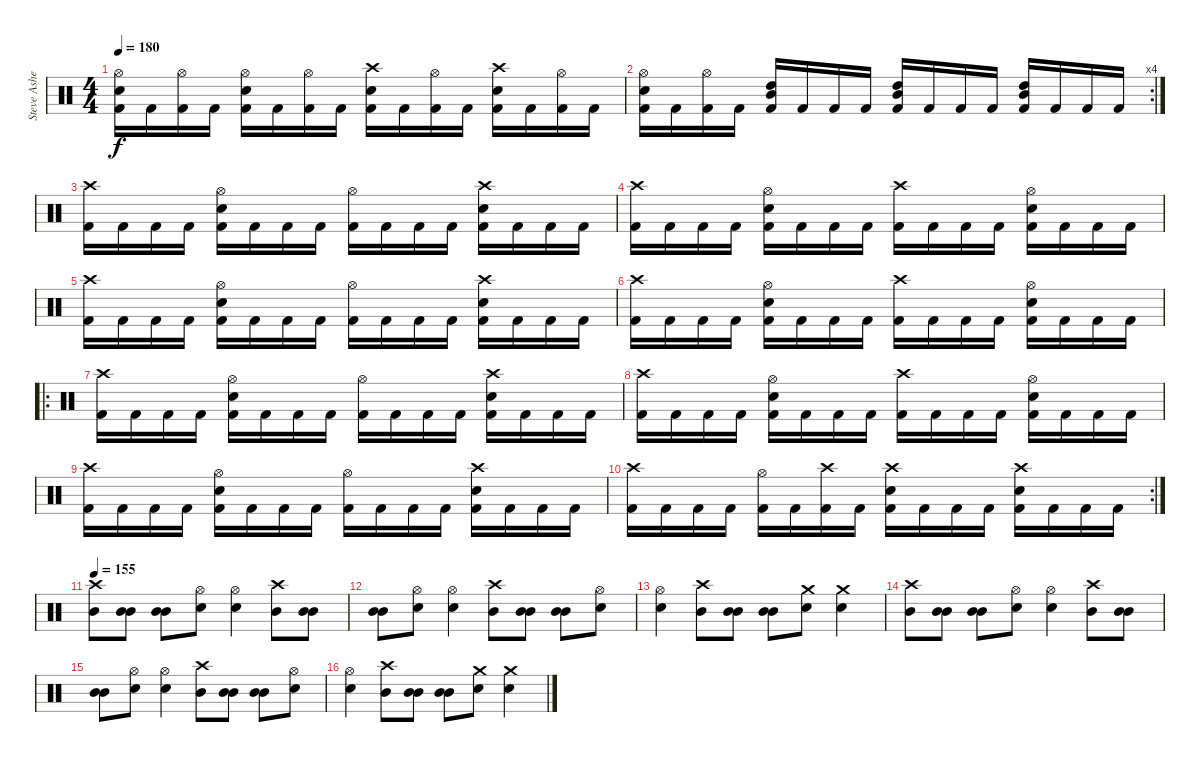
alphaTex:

\track ("Steve Asheim" "Steve Ashe") {instrument percussion}
\staff {score}
\articulation defaults
\ts (4 4)
\tempo 180
\clef neutral
\ks c
("Kick (hit) 2" "Electric Snare (hit)" "Hi-Hat (open)").16{dy f} "Kick (hit) 2".16 ("Kick (hit) 2" "Hi-Hat (open)").16 "Kick (hit) 2".16 ("Kick (hit) 2" "Electric Snare (hit)" "Hi-Hat (open)").16 "Kick (hit) 2".16 ("Kick (hit) 2" "Hi-Hat (open)").16 "Kick (hit) 2".16 ("Kick (hit) 2" "Electric Snare (hit)" "Crash high (hit)").16 "Kick (hit) 2".16 ("Kick (hit) 2" "Hi-Hat (open)").16 "Kick (hit) 2".16 ("Kick (hit) 2" "Electric Snare (hit)" "Crash high (hit)").16 "Kick (hit) 2".16 ("Kick (hit) 2" "Hi-Hat (open)").16 "Kick (hit) 2".16 |
\rc 4
("Kick (hit) 2" "Electric Snare (hit)" "Hi-Hat (open)").16 "Kick (hit) 2".16 ("Kick (hit) 2" "Hi-Hat (open)").16 "Kick (hit) 2".16 ("Kick (hit) 2" "High Tom (hit)" "Mid Tom (hit)").16{bu 120} "Kick (hit) 2".16 "Kick (hit) 2".16 "Kick (hit) 2".16 ("Kick (hit) 2" "High Tom (hit)" "Mid Tom (hit)").16{bu 120} "Kick (hit) 2".16 "Kick (hit) 2".16 "Kick (hit) 2".16 ("Kick (hit) 2" "Mid Tom (hit)" "High Tom (hit)").16{bu 120} "Kick (hit) 2".16 "Kick (hit) 2".16 "Kick (hit) 2".16 |
("Crash high (hit)" "Kick (hit) 2").16 "Kick (hit) 2".16 "Kick (hit) 2".16 "Kick (hit) 2".16 ("Hi-Hat (open)" "Electric Snare (hit)" "Kick (hit) 2").16 "Kick (hit) 2".16 "Kick (hit) 2".16 "Kick (hit) 2".16 ("Hi-Hat (open)" "Kick (hit) 2").16 "Kick (hit) 2".16 "Kick (hit) 2".16 "Kick (hit) 2".16 ("Crash high (hit)" "Electric Snare (hit)" "Kick (hit) 2").16 "Kick (hit) 2".16 "Kick (hit) 2".16 "Kick (hit) 2".16 |
("Crash high (hit)" "Kick (hit) 2").16 "Kick (hit) 2".16 "Kick (hit) 2".16 "Kick (hit) 2".16 ("Hi-Hat (open)" "Electric Snare (hit)" "Kick (hit) 2").16 "Kick (hit) 2".16 "Kick (hit) 2".16 "Kick (hit) 2".16 ("Crash high (hit)" "Kick (hit) 2").16 "Kick (hit) 2".16 "Kick (hit) 2".16 "Kick (hit) 2".16 ("Hi-Hat (open)" "Electric Snare (hit)" "Kick (hit) 2").16 "Kick (hit) 2".16 "Kick (hit) 2".16 "Kick (hit) 2".16 |
("Crash high (hit)" "Kick (hit) 2").16 "Kick (hit) 2".16 "Kick (hit) 2".16 "Kick (hit) 2".16 ("Hi-Hat (open)" "Electric Snare (hit)" "Kick (hit) 2").16 "Kick (hit) 2".16 "Kick (hit) 2".16 "Kick (hit) 2".16 ("Hi-Hat (open)" "Kick (hit) 2").16 "Kick (hit) 2".16 "Kick (hit) 2".16 "Kick (hit) 2".16 ("Crash high (hit)" "Electric Snare (hit)" "Kick (hit) 2").16 "Kick (hit) 2".16 "Kick (hit) 2".16 "Kick (hit) 2".16 |
("Crash high (hit)" "Kick (hit) 2").16 "Kick (hit) 2".16 "Kick (hit) 2".16 "Kick (hit) 2".16 ("Hi-Hat (open)" "Electric Snare (hit)" "Kick (hit) 2").16 "Kick (hit) 2".16 "Kick (hit) 2".16 "Kick (hit) 2".16 ("Crash high (hit)" "Kick (hit) 2").16 "Kick (hit) 2".16 "Kick (hit) 2".16 "Kick (hit) 2".16 ("Hi-Hat (open)" "Electric Snare (hit)" "Kick (hit) 2").16 "Kick (hit) 2".16 "Kick (hit) 2".16 "Kick (hit) 2".16 |
\ro
("Crash high (hit)" "Kick (hit) 2").16 "Kick (hit) 2".16 "Kick (hit) 2".16 "Kick (hit) 2".16 ("Hi-Hat (open)" "Electric Snare (hit)" "Kick (hit) 2").16 "Kick (hit) 2".16 "Kick (hit) 2".16 "Kick (hit) 2".16 ("Hi-Hat (open)" "Kick (hit) 2").16 "Kick (hit) 2".16 "Kick (hit) 2".16 "Kick (hit) 2".16 ("Crash high (hit)" "Electric Snare (hit)" "Kick (hit) 2").16 "Kick (hit) 2".16 "Kick (hit) 2".16 "Kick (hit) 2".16 |
("Crash high (hit)" "Kick (hit) 2").16 "Kick (hit) 2".16 "Kick (hit) 2".16 "Kick (hit) 2".16 ("Hi-Hat (open)" "Electric Snare (hit)" "Kick (hit) 2").16 "Kick (hit) 2".16 "Kick (hit) 2".16 "Kick (hit) 2".16 ("Crash high (hit)" "Kick (hit) 2").16 "Kick (hit) 2".16 "Kick (hit) 2".16 "Kick (hit) 2".16 ("Hi-Hat (open)" "Electric Snare (hit)" "Kick (hit) 2").16 "Kick (hit) 2".16 "Kick (hit) 2".16 "Kick (hit) 2".16 |
("Crash high (hit)" "Kick (hit) 2").16 "Kick (hit) 2".16 "Kick (hit) 2".16 "Kick (hit) 2".16 ("Hi-Hat (open)" "Electric Snare (hit)" "Kick (hit) 2").16 "Kick (hit) 2".16 "Kick (hit) 2".16 "Kick (hit) 2".16 ("Hi-Hat (open)" "Kick (hit) 2").16 "Kick (hit) 2".16 "Kick (hit) 2".16 "Kick (hit) 2".16 ("Crash high (hit)" "Electric Snare (hit)" "Kick (hit) 2").16 "Kick (hit) 2".16 "Kick (hit) 2".16 "Kick (hit) 2".16 |
\rc 2
("Crash high (hit)" "Kick (hit) 2").16 "Kick (hit) 2".16 "Kick (hit) 2".16 "Kick (hit) 2".16 ("Hi-Hat (open)" "Kick (hit) 2").16 "Kick (hit) 2".16 ("Crash high (hit)" "Kick (hit) 2").16 "Kick (hit) 2".16 ("Crash high (hit)" "Electric Snare (hit)" "Kick (hit) 2").16 "Kick (hit) 2".16 "Kick (hit) 2".16 "Kick (hit) 2".16 ("Crash high (hit)" "Electric Snare (hit)" "Kick (hit) 2").16 "Kick (hit) 2".16 "Kick (hit) 2".16 "Kick (hit) 2".16 |
\tempo 155
("Mid Tom (hit)" "Crash high (hit)").8 ("Mid Tom (hit)" "Mid Tom (hit)").8 ("Mid Tom (hit)" "Mid Tom (hit)").8 ("Electric Snare (hit)" "Hi-Hat (open)").8 ("Electric Snare (hit)" "Hi-Hat (open)").4 ("Mid Tom (hit)" "Crash high (hit)").8 ("Mid Tom (hit)" "Mid Tom (hit)").8 |
("Mid Tom (hit)" "Mid Tom (hit)").8 ("Electric Snare (hit)" "Hi-Hat (open)").8 ("Electric Snare (hit)" "Hi-Hat (open)").4 ("Mid Tom (hit)" "Crash high (hit)").8 ("Mid Tom (hit)" "Mid Tom (hit)").8 ("Mid Tom (hit)" "Mid Tom (hit)").8 ("Electric Snare (hit)" "Hi-Hat (open)").8 |
("Electric Snare (hit)" "Hi-Hat (open)").4 ("Mid Tom (hit)" "Crash high (hit)").8 ("Mid Tom (hit)" "Mid Tom (hit)").8 ("Mid Tom (hit)" "Mid Tom (hit)").8 ("Electric Snare (hit)" "Crash medium (hit)").8 ("Electric Snare (hit)" "Crash medium (hit)").4 |
("Mid Tom (hit)" "Crash high (hit)").8 ("Mid Tom (hit)" "Mid Tom (hit)").8 ("Mid Tom (hit)" "Mid Tom (hit)").8 ("Electric Snare (hit)" "Hi-Hat (open)").8 ("Electric Snare (hit)" "Hi-Hat (open)").4 ("Mid Tom (hit)" "Crash high (hit)").8 ("Mid Tom (hit)" "Mid Tom (hit)").8 |
("Mid Tom (hit)" "Mid Tom (hit)").8 ("Electric Snare (hit)" "Hi-Hat (open)").8 ("Electric Snare (hit)" "Hi-Hat (open)").4 ("Mid Tom (hit)" "Crash high (hit)").8 ("Mid Tom (hit)" "Mid Tom (hit)").8 ("Mid Tom (hit)" "Mid Tom (hit)").8 ("Electric Snare (hit)" "Hi-Hat (open)").8 |
("Electric Snare (hit)" "Hi-Hat (open)").4 ("Mid Tom (hit)" "Crash high (hit)").8 ("Mid Tom (hit)" "Mid Tom (hit)").8 ("Mid Tom (hit)" "Mid Tom (hit)").8 ("Electric Snare (hit)" "Crash medium (hit)").8 ("Electric Snare (hit)" "Crash medium (hit)").4
